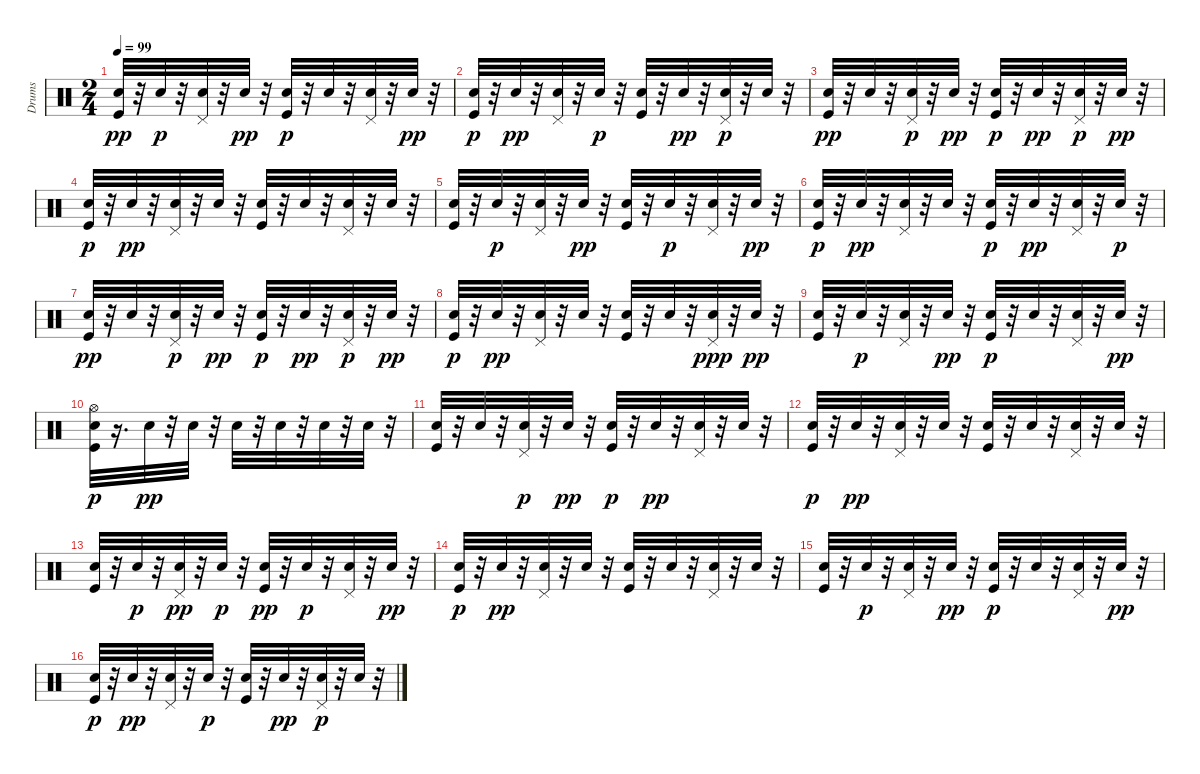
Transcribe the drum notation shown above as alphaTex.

\track ("Drums" "Drums") {instrument percussion}
\staff {score}
\articulation defaults
\ts (2 4)
\tempo 99
\clef neutral
\ks c
("Kick (hit)" "Hand Clap (hit)").32{dy pp} r.32 "Snare (hit) 2".32{dy p} r.32 ("Pedal Hi-Hat (hit)" "Snare (hit) 2").32 r.32 "Snare (hit) 2".32{dy pp} r.32 ("Hand Clap (hit)" "Kick (hit)").32{dy p} r.32 "Snare (hit) 2".32 r.32 ("Pedal Hi-Hat (hit)" "Snare (hit) 2").32 r.32 "Hand Clap (hit)".32{dy pp} r.32 |
("Hand Clap (hit)" "Kick (hit)").32{dy p} r.32 "Snare (hit) 2".32{dy pp} r.32 ("Pedal Hi-Hat (hit)" "Snare (hit) 2").32 r.32 "Snare (hit) 2".32{dy p} r.32 ("Hand Clap (hit)" "Kick (hit)").32 r.32 "Hand Clap (hit)".32{dy pp} r.32 ("Pedal Hi-Hat (hit)" "Snare (hit) 2").32{dy p} r.32 "Snare (hit) 2".32 r.32 |
("Kick (hit)" "Hand Clap (hit)").32{dy pp} r.32 "Snare (hit) 2".32 r.32 ("Pedal Hi-Hat (hit)" "Snare (hit) 2").32{dy p} r.32 "Snare (hit) 2".32{dy pp} r.32 ("Hand Clap (hit)" "Kick (hit)").32{dy p} r.32 "Snare (hit) 2".32{dy pp} r.32 ("Pedal Hi-Hat (hit)" "Snare (hit) 2").32{dy p} r.32 "Snare (hit) 2".32{dy pp} r.32 |
("Hand Clap (hit)" "Kick (hit)").32{dy p} r.32 "Snare (hit) 2".32{dy pp} r.32 ("Pedal Hi-Hat (hit)" "Snare (hit) 2").32 r.32 "Hand Clap (hit)".32 r.32 ("Kick (hit)" "Hand Clap (hit)").32 r.32 "Snare (hit) 2".32 r.32 ("Hand Clap (hit)" "Pedal Hi-Hat (hit)").32 r.32 "Hand Clap (hit)".32 r.32 |
("Kick (hit)" "Hand Clap (hit)").32 r.32 "Snare (hit) 2".32{dy p} r.32 ("Pedal Hi-Hat (hit)" "Snare (hit) 2").32 r.32 "Hand Clap (hit)".32{dy pp} r.32 ("Kick (hit)" "Snare (hit) 2").32 r.32 "Snare (hit) 2".32{dy p} r.32 ("Pedal Hi-Hat (hit)" "Snare (hit) 2").32 r.32 "Hand Clap (hit)".32{dy pp} r.32 |
("Hand Clap (hit)" "Kick (hit)").32{dy p} r.32 "Snare (hit) 2".32{dy pp} r.32 ("Pedal Hi-Hat (hit)" "Snare (hit) 2").32 r.32 "Hand Clap (hit)".32 r.32 ("Hand Clap (hit)" "Kick (hit)").32{dy p} r.32 "Snare (hit) 2".32{dy pp} r.32 ("Pedal Hi-Hat (hit)" "Hand Clap (hit)").32 r.32 "Snare (hit) 2".32{dy p} r.32 |
("Kick (hit)" "Hand Clap (hit)").32{dy pp} r.32 "Snare (hit) 2".32 r.32 ("Pedal Hi-Hat (hit)" "Snare (hit) 2").32{dy p} r.32 "Snare (hit) 2".32{dy pp} r.32 ("Hand Clap (hit)" "Kick (hit)").32{dy p} r.32 "Snare (hit) 2".32{dy pp} r.32 ("Pedal Hi-Hat (hit)" "Snare (hit) 2").32{dy p} r.32 "Snare (hit) 2".32{dy pp} r.32 |
("Hand Clap (hit)" "Kick (hit)").32{dy p} r.32 "Snare (hit) 2".32{dy pp} r.32 ("Pedal Hi-Hat (hit)" "Snare (hit) 2").32 r.32 "Hand Clap (hit)".32 r.32 ("Kick (hit)" "Hand Clap (hit)").32 r.32 "Snare (hit) 2".32 r.32 ("Hand Clap (hit)" "Pedal Hi-Hat (hit)").32{dy ppp} r.32 "Snare (hit) 2".32{dy pp} r.32 |
("Kick (hit)" "Hand Clap (hit)").32 r.32 "Snare (hit) 2".32{dy p} r.32 ("Pedal Hi-Hat (hit)" "Snare (hit) 2").32 r.32 "Snare (hit) 2".32{dy pp} r.32 ("Hand Clap (hit)" "Kick (hit)").32{dy p} r.32 "Snare (hit) 2".32 r.32 ("Pedal Hi-Hat (hit)" "Snare (hit) 2").32 r.32 "Snare (hit) 2".32{dy pp} r.32 |
("Hand Clap (hit)" "Hi-Hat (open)" "Kick (hit)").32{dy p} r.16{d} "Snare (hit) 2".32{dy pp} r.32 "Hand Clap (hit)".32 r.32 "Hand Clap (hit)".32 r.32 "Snare (hit) 2".32 r.32 "Hand Clap (hit)".32 r.32 "Hand Clap (hit)".32 r.32 |
("Kick (hit)" "Hand Clap (hit)").32 r.32 "Snare (hit) 2".32 r.32 ("Pedal Hi-Hat (hit)" "Snare (hit) 2").32{dy p} r.32 "Hand Clap (hit)".32{dy pp} r.32 ("Hand Clap (hit)" "Kick (hit)").32{dy p} r.32 "Snare (hit) 2".32{dy pp} r.32 ("Pedal Hi-Hat (hit)" "Hand Clap (hit)").32 r.32 "Snare (hit) 2".32 r.32 |
("Hand Clap (hit)" "Kick (hit)").32{dy p} r.32 "Snare (hit) 2".32{dy pp} r.32 ("Pedal Hi-Hat (hit)" "Snare (hit) 2").32 r.32 "Snare (hit) 2".32 r.32 ("Kick (hit)" "Hand Clap (hit)").32 r.32 "Snare (hit) 2".32 r.32 ("Hand Clap (hit)" "Pedal Hi-Hat (hit)").32 r.32 "Snare (hit) 2".32 r.32 |
("Kick (hit)" "Hand Clap (hit)").32 r.32 "Snare (hit) 2".32{dy p} r.32 ("Pedal Hi-Hat (hit)" "Snare (hit) 2").32{dy pp} r.32 "Hand Clap (hit)".32{dy p} r.32 ("Kick (hit)" "Snare (hit) 2").32{dy pp} r.32 "Snare (hit) 2".32{dy p} r.32 ("Pedal Hi-Hat (hit)" "Snare (hit) 2").32 r.32 "Snare (hit) 2".32{dy pp} r.32 |
("Hand Clap (hit)" "Kick (hit)").32{dy p} r.32 "Snare (hit) 2".32{dy pp} r.32 ("Pedal Hi-Hat (hit)" "Snare (hit) 2").32 r.32 "Hand Clap (hit)".32 r.32 ("Kick (hit)" "Hand Clap (hit)").32 r.32 "Snare (hit) 2".32 r.32 ("Pedal Hi-Hat (hit)" "Hand Clap (hit)").32 r.32 "Hand Clap (hit)".32 r.32 |
("Kick (hit)" "Hand Clap (hit)").32 r.32 "Snare (hit) 2".32{dy p} r.32 ("Pedal Hi-Hat (hit)" "Snare (hit) 2").32 r.32 "Snare (hit) 2".32{dy pp} r.32 ("Hand Clap (hit)" "Kick (hit)").32{dy p} r.32 "Snare (hit) 2".32 r.32 ("Pedal Hi-Hat (hit)" "Snare (hit) 2").32 r.32 "Hand Clap (hit)".32{dy pp} r.32 |
("Hand Clap (hit)" "Kick (hit)").32{dy p} r.32 "Snare (hit) 2".32{dy pp} r.32 ("Pedal Hi-Hat (hit)" "Snare (hit) 2").32 r.32 "Snare (hit) 2".32{dy p} r.32 ("Hand Clap (hit)" "Kick (hit)").32 r.32 "Hand Clap (hit)".32{dy pp} r.32 ("Pedal Hi-Hat (hit)" "Snare (hit) 2").32{dy p} r.32 "Snare (hit) 2".32 r.32
